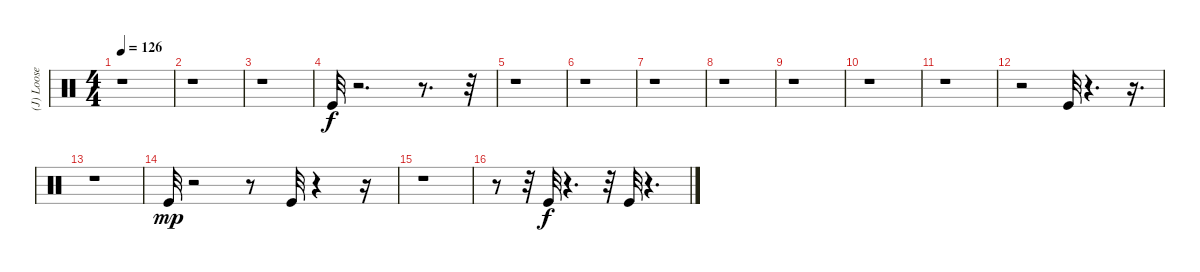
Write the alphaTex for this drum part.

\track ("(J) Loose Kick" "(J) Loose ") {instrument percussion}
\staff {score}
\articulation defaults
\ts (4 4)
\tempo 126
\clef neutral
\ks c
r.1{dy f} |
r.1 |
r.1 |
"Kick (hit)".32 r.2{d} r.8{d} r.32 |
r.1 |
r.1 |
r.1 |
r.1 |
r.1 |
r.1 |
r.1 |
r.2 "Kick (hit)".32 r.4{d} r.16{d} |
r.1 |
"Kick (hit)".32{dy mp} r.2 r.8 "Kick (hit)".32 r.4 r.16 |
r.1 |
r.8 r.32 "Kick (hit)".32{dy f} r.4{d} r.32 "Kick (hit)".32 r.4{d}
